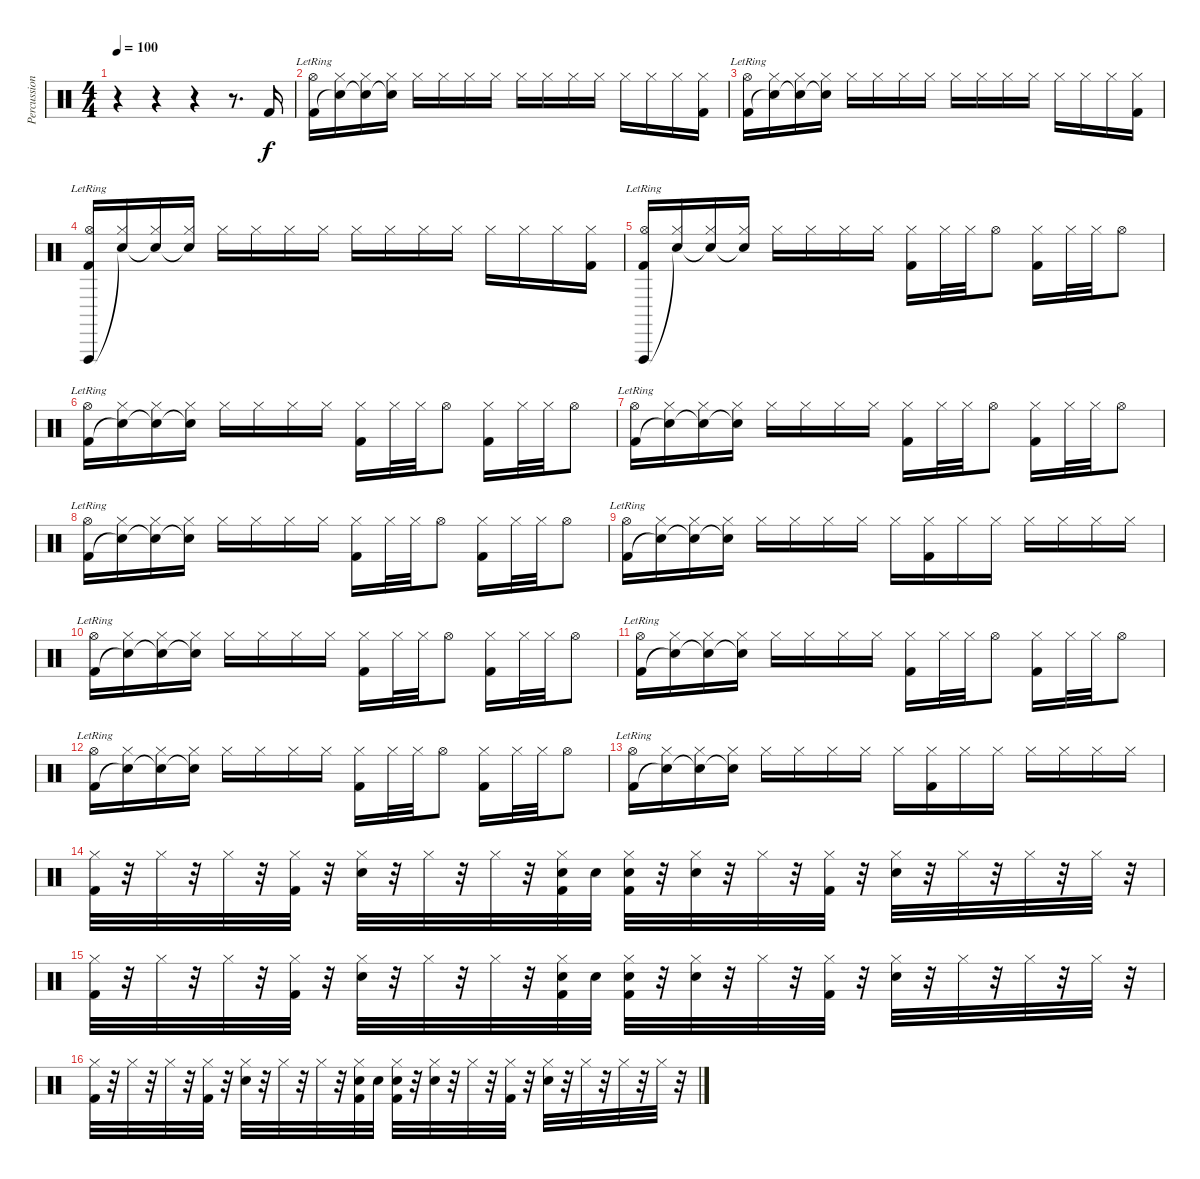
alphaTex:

\track ("Percussion" "Percussion") {instrument percussion}
\staff {score}
\articulation defaults
\ts (4 4)
\tempo 100
\clef neutral
\ks c
r.4{dy f} r.4 r.4 r.8{d} "Kick (hit) 2".16 |
("Hi-Hat (open)"{lr} "Kick (hit) 2").16 ("Hi-Hat (closed)" "Snare (hit)"{t}).16{volume 9} ("Hi-Hat (closed)" "Snare (hit)"{t}).16{volume 13} ("Hi-Hat (closed)" "Snare (hit)"{t}).16{volume 9} "Hi-Hat (closed)".16{volume 13} "Hi-Hat (closed)".16{volume 9} "Hi-Hat (closed)".16{volume 13} "Hi-Hat (closed)".16{volume 9} "Hi-Hat (closed)".16{volume 13} "Hi-Hat (closed)".16{volume 9} "Hi-Hat (closed)".16{volume 13} "Hi-Hat (closed)".16{volume 9} "Hi-Hat (closed)".16{volume 13} "Hi-Hat (closed)".16{volume 9} "Hi-Hat (closed)".16{volume 13} ("Hi-Hat (closed)" "Kick (hit) 2").16 |
("Hi-Hat (open)"{lr} "Kick (hit) 2").16 ("Hi-Hat (closed)" "Snare (hit)"{t}).16{volume 9} ("Hi-Hat (closed)" "Snare (hit)"{t}).16{volume 13} ("Hi-Hat (closed)" "Snare (hit)"{t}).16{volume 9} "Hi-Hat (closed)".16{volume 13} "Hi-Hat (closed)".16{volume 9} "Hi-Hat (closed)".16{volume 13} "Hi-Hat (closed)".16{volume 9} "Hi-Hat (closed)".16{volume 13} "Hi-Hat (closed)".16{volume 9} "Hi-Hat (closed)".16{volume 13} "Hi-Hat (closed)".16{volume 9} "Hi-Hat (closed)".16{volume 13} "Hi-Hat (closed)".16{volume 9} "Hi-Hat (closed)".16{volume 13} ("Hi-Hat (closed)" "Kick (hit) 2").16 |
("Hi-Hat (open)"{lr} "Vibraslap (hit)" "Kick (hit) 2").16 ("Hi-Hat (closed)" "Snare (hit)"{t}).16{volume 9} ("Hi-Hat (closed)" "Snare (hit)"{t}).16{volume 13} ("Hi-Hat (closed)" "Snare (hit)"{t}).16{volume 9} "Hi-Hat (closed)".16{volume 13} "Hi-Hat (closed)".16{volume 9} "Hi-Hat (closed)".16{volume 13} "Hi-Hat (closed)".16{volume 9} "Hi-Hat (closed)".16{volume 13} "Hi-Hat (closed)".16{volume 9} "Hi-Hat (closed)".16{volume 13} "Hi-Hat (closed)".16{volume 9} "Hi-Hat (closed)".16{volume 13} "Hi-Hat (closed)".16{volume 9} "Hi-Hat (closed)".16{volume 13} ("Hi-Hat (closed)" "Kick (hit) 2").16 |
("Hi-Hat (open)"{lr} "Vibraslap (hit)" "Kick (hit) 2").16 ("Hi-Hat (closed)" "Snare (hit)"{t}).16{volume 9} ("Hi-Hat (closed)" "Snare (hit)"{t}).16{volume 13} ("Hi-Hat (closed)" "Snare (hit)"{t}).16{volume 9} "Hi-Hat (closed)".16{volume 13} "Hi-Hat (closed)".16{volume 9} "Hi-Hat (closed)".16{volume 13} "Hi-Hat (closed)".16{volume 9} ("Hi-Hat (closed)" "Kick (hit) 2").16{volume 13} "Hi-Hat (closed)".32 "Hi-Hat (closed)".32 "Hi-Hat (open)".8 ("Hi-Hat (closed)" "Kick (hit) 2").16 "Hi-Hat (closed)".32 "Hi-Hat (closed)".32 "Hi-Hat (open)".8 |
("Hi-Hat (open)"{lr} "Kick (hit) 2").16 ("Hi-Hat (closed)" "Snare (hit)"{t}).16{volume 9} ("Hi-Hat (closed)" "Snare (hit)"{t}).16{volume 13} ("Hi-Hat (closed)" "Snare (hit)"{t}).16{volume 9} "Hi-Hat (closed)".16{volume 13} "Hi-Hat (closed)".16{volume 9} "Hi-Hat (closed)".16{volume 13} "Hi-Hat (closed)".16{volume 9} ("Hi-Hat (closed)" "Kick (hit) 2").16{volume 13} "Hi-Hat (closed)".32 "Hi-Hat (closed)".32 "Hi-Hat (open)".8 ("Hi-Hat (closed)" "Kick (hit) 2").16 "Hi-Hat (closed)".32 "Hi-Hat (closed)".32 "Hi-Hat (open)".8 |
("Hi-Hat (open)"{lr} "Kick (hit) 2").16 ("Hi-Hat (closed)" "Snare (hit)"{t}).16{volume 9} ("Hi-Hat (closed)" "Snare (hit)"{t}).16{volume 13} ("Hi-Hat (closed)" "Snare (hit)"{t}).16{volume 9} "Hi-Hat (closed)".16{volume 13} "Hi-Hat (closed)".16{volume 9} "Hi-Hat (closed)".16{volume 13} "Hi-Hat (closed)".16{volume 9} ("Hi-Hat (closed)" "Kick (hit) 2").16{volume 13} "Hi-Hat (closed)".32 "Hi-Hat (closed)".32 "Hi-Hat (open)".8 ("Hi-Hat (closed)" "Kick (hit) 2").16 "Hi-Hat (closed)".32 "Hi-Hat (closed)".32 "Hi-Hat (open)".8 |
("Hi-Hat (open)"{lr} "Kick (hit) 2").16 ("Hi-Hat (closed)" "Snare (hit)"{t}).16{volume 9} ("Hi-Hat (closed)" "Snare (hit)"{t}).16{volume 13} ("Hi-Hat (closed)" "Snare (hit)"{t}).16{volume 9} "Hi-Hat (closed)".16{volume 13} "Hi-Hat (closed)".16{volume 9} "Hi-Hat (closed)".16{volume 13} "Hi-Hat (closed)".16{volume 9} ("Hi-Hat (closed)" "Kick (hit) 2").16{volume 13} "Hi-Hat (closed)".32 "Hi-Hat (closed)".32 "Hi-Hat (open)".8 ("Hi-Hat (closed)" "Kick (hit) 2").16 "Hi-Hat (closed)".32 "Hi-Hat (closed)".32 "Hi-Hat (open)".8 |
("Hi-Hat (open)"{lr} "Kick (hit) 2").16 ("Hi-Hat (closed)" "Snare (hit)"{t}).16{volume 9} ("Hi-Hat (closed)" "Snare (hit)"{t}).16{volume 13} ("Hi-Hat (closed)" "Snare (hit)"{t}).16{volume 9} "Hi-Hat (closed)".16{volume 13} "Hi-Hat (closed)".16{volume 9} "Hi-Hat (closed)".16{volume 13} "Hi-Hat (closed)".16{volume 9} "Hi-Hat (closed)".16{volume 13} ("Hi-Hat (closed)" "Kick (hit) 2").16{volume 9} "Hi-Hat (closed)".16{volume 13} "Hi-Hat (closed)".16{volume 9} "Hi-Hat (closed)".16{volume 13} "Hi-Hat (closed)".16{volume 9} "Hi-Hat (closed)".16{volume 13} "Hi-Hat (closed)".16 |
("Hi-Hat (open)"{lr} "Kick (hit) 2").16 ("Hi-Hat (closed)" "Snare (hit)"{t}).16{volume 9} ("Hi-Hat (closed)" "Snare (hit)"{t}).16{volume 13} ("Hi-Hat (closed)" "Snare (hit)"{t}).16{volume 9} "Hi-Hat (closed)".16{volume 13} "Hi-Hat (closed)".16{volume 9} "Hi-Hat (closed)".16{volume 13} "Hi-Hat (closed)".16{volume 9} ("Hi-Hat (closed)" "Kick (hit) 2").16{volume 13} "Hi-Hat (closed)".32 "Hi-Hat (closed)".32 "Hi-Hat (open)".8 ("Hi-Hat (closed)" "Kick (hit) 2").16 "Hi-Hat (closed)".32 "Hi-Hat (closed)".32 "Hi-Hat (open)".8 |
("Hi-Hat (open)"{lr} "Kick (hit) 2").16 ("Hi-Hat (closed)" "Snare (hit)"{t}).16{volume 9} ("Hi-Hat (closed)" "Snare (hit)"{t}).16{volume 13} ("Hi-Hat (closed)" "Snare (hit)"{t}).16{volume 9} "Hi-Hat (closed)".16{volume 13} "Hi-Hat (closed)".16{volume 9} "Hi-Hat (closed)".16{volume 13} "Hi-Hat (closed)".16{volume 9} ("Hi-Hat (closed)" "Kick (hit) 2").16{volume 13} "Hi-Hat (closed)".32 "Hi-Hat (closed)".32 "Hi-Hat (open)".8 ("Hi-Hat (closed)" "Kick (hit) 2").16 "Hi-Hat (closed)".32 "Hi-Hat (closed)".32 "Hi-Hat (open)".8 |
("Hi-Hat (open)"{lr} "Kick (hit) 2").16 ("Hi-Hat (closed)" "Snare (hit)"{t}).16{volume 9} ("Hi-Hat (closed)" "Snare (hit)"{t}).16{volume 13} ("Hi-Hat (closed)" "Snare (hit)"{t}).16{volume 9} "Hi-Hat (closed)".16{volume 13} "Hi-Hat (closed)".16{volume 9} "Hi-Hat (closed)".16{volume 13} "Hi-Hat (closed)".16{volume 9} ("Hi-Hat (closed)" "Kick (hit) 2").16{volume 13} "Hi-Hat (closed)".32 "Hi-Hat (closed)".32 "Hi-Hat (open)".8 ("Hi-Hat (closed)" "Kick (hit) 2").16 "Hi-Hat (closed)".32 "Hi-Hat (closed)".32 "Hi-Hat (open)".8 |
("Hi-Hat (open)"{lr} "Kick (hit) 2").16 ("Hi-Hat (closed)" "Snare (hit)"{t}).16{volume 9} ("Hi-Hat (closed)" "Snare (hit)"{t}).16{volume 13} ("Hi-Hat (closed)" "Snare (hit)"{t}).16{volume 9} "Hi-Hat (closed)".16{volume 13} "Hi-Hat (closed)".16{volume 9} "Hi-Hat (closed)".16{volume 13} "Hi-Hat (closed)".16{volume 9} "Hi-Hat (closed)".16{volume 13} ("Hi-Hat (closed)" "Kick (hit) 2").16{volume 9} "Hi-Hat (closed)".16{volume 13} "Hi-Hat (closed)".16{volume 9} "Hi-Hat (closed)".16{volume 13} "Hi-Hat (closed)".16{volume 9} "Hi-Hat (closed)".16{volume 13} "Hi-Hat (closed)".16 |
("Hi-Hat (closed)" "Kick (hit) 2").32 r.32 "Hi-Hat (closed)".32 r.32 "Hi-Hat (closed)".32 r.32 ("Hi-Hat (closed)" "Kick (hit) 2").32 r.32 ("Hi-Hat (closed)" "Snare (hit) 2").32 r.32 "Hi-Hat (closed)".32 r.32 "Hi-Hat (closed)".32 r.32 ("Hi-Hat (closed)" "Snare (hit) 2" "Kick (hit) 2").32 "Snare (hit) 2".32 ("Hi-Hat (closed)" "Snare (hit) 2" "Kick (hit) 2").32 r.32 ("Hi-Hat (closed)" "Snare (hit) 2").32 r.32 "Hi-Hat (closed)".32 r.32 ("Hi-Hat (closed)" "Kick (hit) 2").32 r.32 ("Hi-Hat (closed)" "Snare (hit) 2").32 r.32 "Hi-Hat (closed)".32 r.32 "Hi-Hat (closed)".32 r.32 "Hi-Hat (closed)".32 r.32 |
("Hi-Hat (closed)" "Kick (hit) 2").32 r.32 "Hi-Hat (closed)".32 r.32 "Hi-Hat (closed)".32 r.32 ("Hi-Hat (closed)" "Kick (hit) 2").32 r.32 ("Hi-Hat (closed)" "Snare (hit) 2").32 r.32 "Hi-Hat (closed)".32 r.32 "Hi-Hat (closed)".32 r.32 ("Hi-Hat (closed)" "Snare (hit) 2" "Kick (hit) 2").32 "Snare (hit) 2".32 ("Hi-Hat (closed)" "Snare (hit) 2" "Kick (hit) 2").32 r.32 ("Hi-Hat (closed)" "Snare (hit) 2").32 r.32 "Hi-Hat (closed)".32 r.32 ("Hi-Hat (closed)" "Kick (hit) 2").32 r.32 ("Hi-Hat (closed)" "Snare (hit) 2").32 r.32 "Hi-Hat (closed)".32 r.32 "Hi-Hat (closed)".32 r.32 "Hi-Hat (closed)".32 r.32 |
("Hi-Hat (closed)" "Kick (hit) 2").32 r.32 "Hi-Hat (closed)".32 r.32 "Hi-Hat (closed)".32 r.32 ("Hi-Hat (closed)" "Kick (hit) 2").32 r.32 ("Hi-Hat (closed)" "Snare (hit) 2").32 r.32 "Hi-Hat (closed)".32 r.32 "Hi-Hat (closed)".32 r.32 ("Hi-Hat (closed)" "Snare (hit) 2" "Kick (hit) 2").32 "Snare (hit) 2".32 ("Hi-Hat (closed)" "Snare (hit) 2" "Kick (hit) 2").32 r.32 ("Hi-Hat (closed)" "Snare (hit) 2").32 r.32 "Hi-Hat (closed)".32 r.32 ("Hi-Hat (closed)" "Kick (hit) 2").32 r.32 ("Hi-Hat (closed)" "Snare (hit) 2").32 r.32 "Hi-Hat (closed)".32 r.32 "Hi-Hat (closed)".32 r.32 "Hi-Hat (closed)".32 r.32
